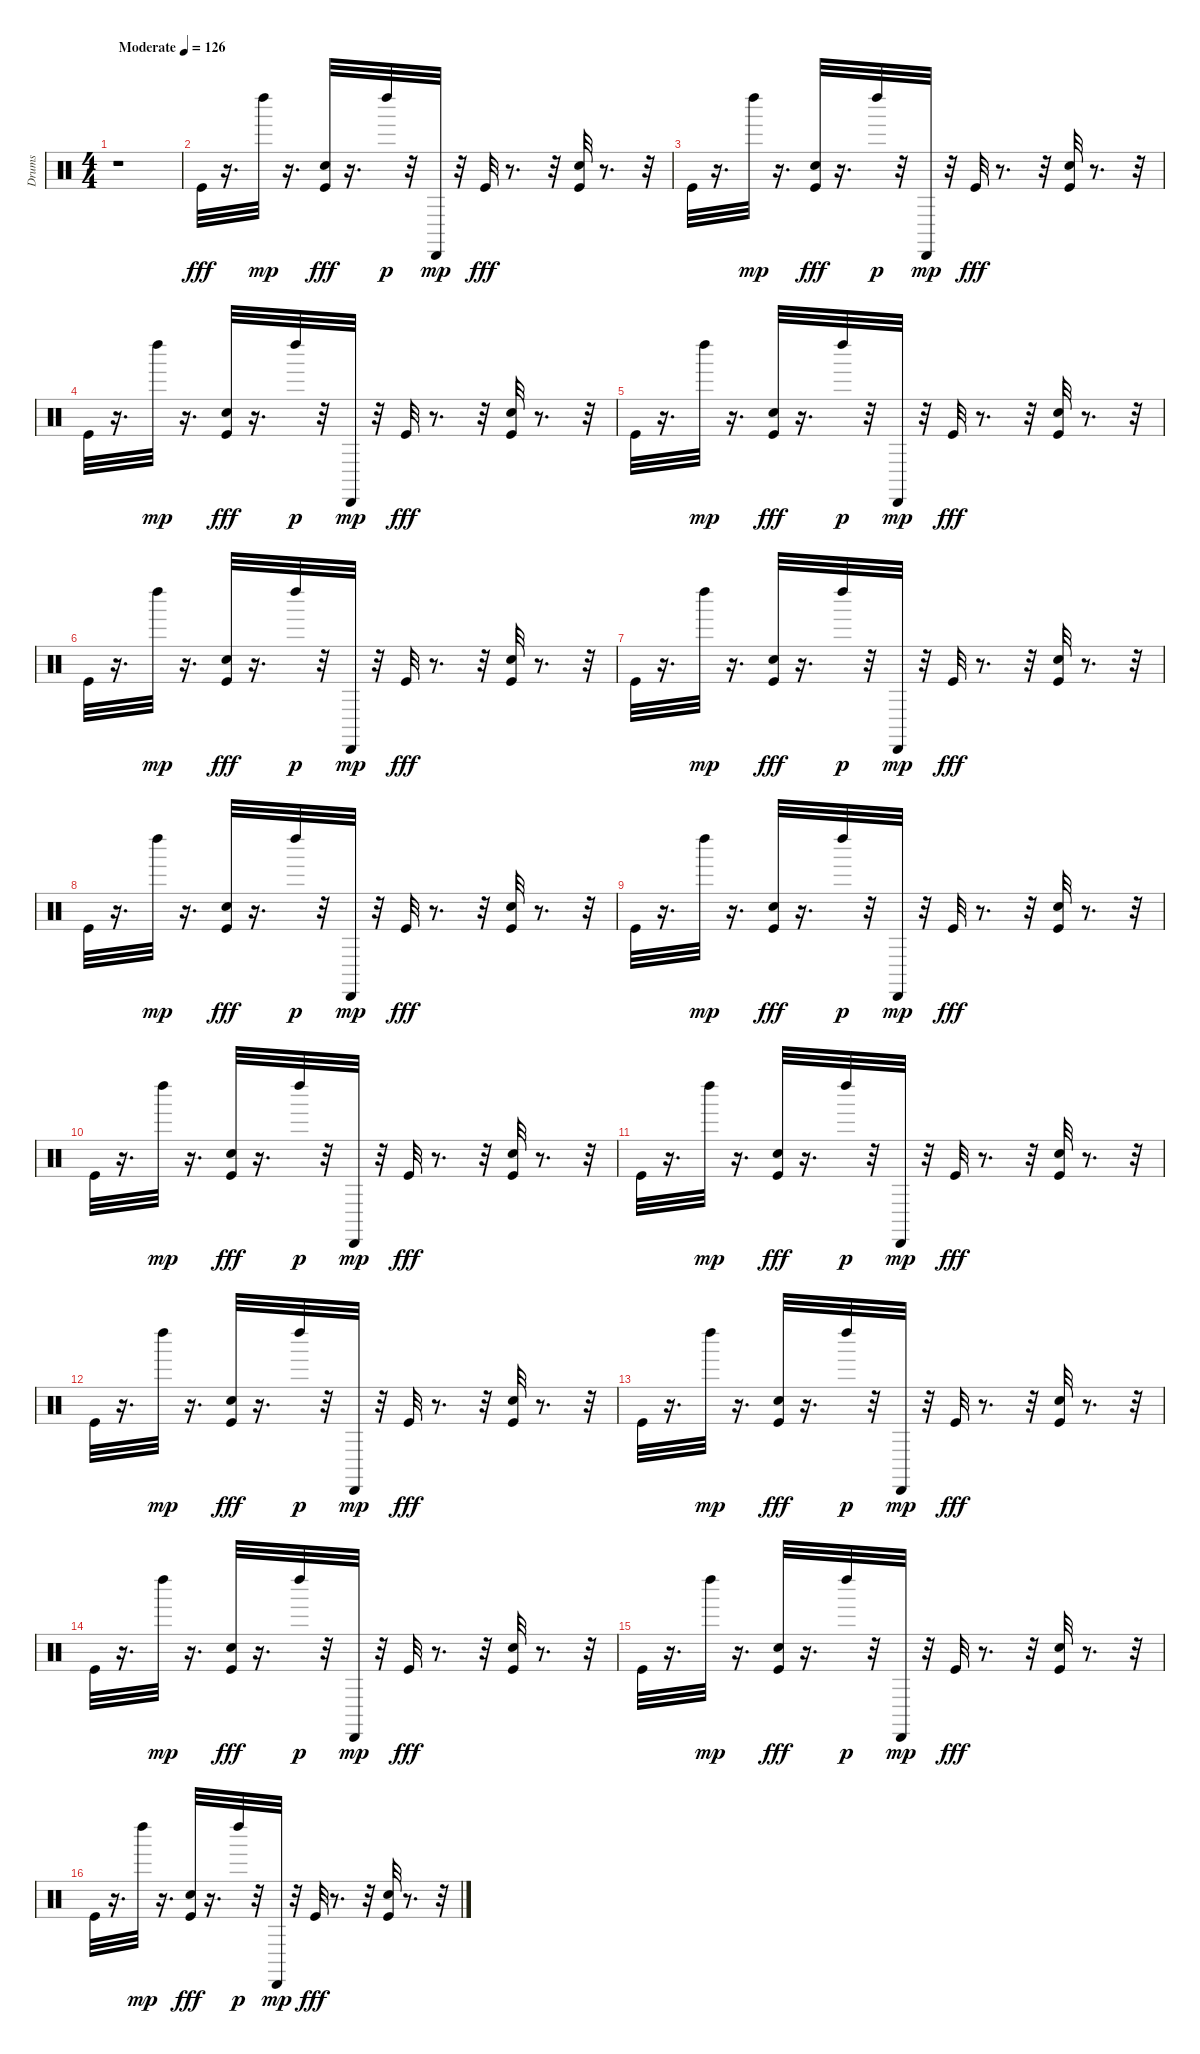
\track ("Drums" "Drums") {instrument percussion}
\staff {score}
\articulation defaults
\ts (4 4)
\tempo (126 "Moderate")
\clef neutral
\ks c
r.1{dy fff} |
"Kick (hit)".32 r.16{d} "Left Maraca (hit)".32{dy mp} r.16{d} ("Kick (hit)" "Hand Clap (hit)").32{dy fff} r.16{d} "Left Maraca (hit)".32{dy p} r.32 "Cabasa (hit)".32{dy mp} r.32 "Kick (hit)".32{dy fff} r.8{d} r.32 ("Kick (hit)" "Hand Clap (hit)").32 r.8{d} r.32 |
"Kick (hit)".32 r.16{d} "Left Maraca (hit)".32{dy mp} r.16{d} ("Kick (hit)" "Hand Clap (hit)").32{dy fff} r.16{d} "Left Maraca (hit)".32{dy p} r.32 "Cabasa (hit)".32{dy mp} r.32 "Kick (hit)".32{dy fff} r.8{d} r.32 ("Kick (hit)" "Hand Clap (hit)").32 r.8{d} r.32 |
"Kick (hit)".32 r.16{d} "Left Maraca (hit)".32{dy mp} r.16{d} ("Kick (hit)" "Hand Clap (hit)").32{dy fff} r.16{d} "Left Maraca (hit)".32{dy p} r.32 "Cabasa (hit)".32{dy mp} r.32 "Kick (hit)".32{dy fff} r.8{d} r.32 ("Kick (hit)" "Hand Clap (hit)").32 r.8{d} r.32 |
"Kick (hit)".32 r.16{d} "Left Maraca (hit)".32{dy mp} r.16{d} ("Kick (hit)" "Hand Clap (hit)").32{dy fff} r.16{d} "Left Maraca (hit)".32{dy p} r.32 "Cabasa (hit)".32{dy mp} r.32 "Kick (hit)".32{dy fff} r.8{d} r.32 ("Kick (hit)" "Hand Clap (hit)").32 r.8{d} r.32 |
"Kick (hit)".32 r.16{d} "Left Maraca (hit)".32{dy mp} r.16{d} ("Kick (hit)" "Hand Clap (hit)").32{dy fff} r.16{d} "Left Maraca (hit)".32{dy p} r.32 "Cabasa (hit)".32{dy mp} r.32 "Kick (hit)".32{dy fff} r.8{d} r.32 ("Kick (hit)" "Hand Clap (hit)").32 r.8{d} r.32 |
"Kick (hit)".32 r.16{d} "Left Maraca (hit)".32{dy mp} r.16{d} ("Kick (hit)" "Hand Clap (hit)").32{dy fff} r.16{d} "Left Maraca (hit)".32{dy p} r.32 "Cabasa (hit)".32{dy mp} r.32 "Kick (hit)".32{dy fff} r.8{d} r.32 ("Kick (hit)" "Hand Clap (hit)").32 r.8{d} r.32 |
"Kick (hit)".32 r.16{d} "Left Maraca (hit)".32{dy mp} r.16{d} ("Kick (hit)" "Hand Clap (hit)").32{dy fff} r.16{d} "Left Maraca (hit)".32{dy p} r.32 "Cabasa (hit)".32{dy mp} r.32 "Kick (hit)".32{dy fff} r.8{d} r.32 ("Kick (hit)" "Hand Clap (hit)").32 r.8{d} r.32 |
"Kick (hit)".32 r.16{d} "Left Maraca (hit)".32{dy mp} r.16{d} ("Kick (hit)" "Hand Clap (hit)").32{dy fff} r.16{d} "Left Maraca (hit)".32{dy p} r.32 "Cabasa (hit)".32{dy mp} r.32 "Kick (hit)".32{dy fff} r.8{d} r.32 ("Kick (hit)" "Hand Clap (hit)").32 r.8{d} r.32 |
"Kick (hit)".32 r.16{d} "Left Maraca (hit)".32{dy mp} r.16{d} ("Kick (hit)" "Hand Clap (hit)").32{dy fff} r.16{d} "Left Maraca (hit)".32{dy p} r.32 "Cabasa (hit)".32{dy mp} r.32 "Kick (hit)".32{dy fff} r.8{d} r.32 ("Kick (hit)" "Hand Clap (hit)").32 r.8{d} r.32 |
"Kick (hit)".32 r.16{d} "Left Maraca (hit)".32{dy mp} r.16{d} ("Kick (hit)" "Hand Clap (hit)").32{dy fff} r.16{d} "Left Maraca (hit)".32{dy p} r.32 "Cabasa (hit)".32{dy mp} r.32 "Kick (hit)".32{dy fff} r.8{d} r.32 ("Kick (hit)" "Hand Clap (hit)").32 r.8{d} r.32 |
"Kick (hit)".32 r.16{d} "Left Maraca (hit)".32{dy mp} r.16{d} ("Kick (hit)" "Hand Clap (hit)").32{dy fff} r.16{d} "Left Maraca (hit)".32{dy p} r.32 "Cabasa (hit)".32{dy mp} r.32 "Kick (hit)".32{dy fff} r.8{d} r.32 ("Kick (hit)" "Hand Clap (hit)").32 r.8{d} r.32 |
"Kick (hit)".32 r.16{d} "Left Maraca (hit)".32{dy mp} r.16{d} ("Kick (hit)" "Hand Clap (hit)").32{dy fff} r.16{d} "Left Maraca (hit)".32{dy p} r.32 "Cabasa (hit)".32{dy mp} r.32 "Kick (hit)".32{dy fff} r.8{d} r.32 ("Kick (hit)" "Hand Clap (hit)").32 r.8{d} r.32 |
"Kick (hit)".32 r.16{d} "Left Maraca (hit)".32{dy mp} r.16{d} ("Kick (hit)" "Hand Clap (hit)").32{dy fff} r.16{d} "Left Maraca (hit)".32{dy p} r.32 "Cabasa (hit)".32{dy mp} r.32 "Kick (hit)".32{dy fff} r.8{d} r.32 ("Kick (hit)" "Hand Clap (hit)").32 r.8{d} r.32 |
"Kick (hit)".32 r.16{d} "Left Maraca (hit)".32{dy mp} r.16{d} ("Kick (hit)" "Hand Clap (hit)").32{dy fff} r.16{d} "Left Maraca (hit)".32{dy p} r.32 "Cabasa (hit)".32{dy mp} r.32 "Kick (hit)".32{dy fff} r.8{d} r.32 ("Kick (hit)" "Hand Clap (hit)").32 r.8{d} r.32 |
"Kick (hit)".32 r.16{d} "Left Maraca (hit)".32{dy mp} r.16{d} ("Kick (hit)" "Hand Clap (hit)").32{dy fff} r.16{d} "Left Maraca (hit)".32{dy p} r.32 "Cabasa (hit)".32{dy mp} r.32 "Kick (hit)".32{dy fff} r.8{d} r.32 ("Kick (hit)" "Hand Clap (hit)").32 r.8{d} r.32
